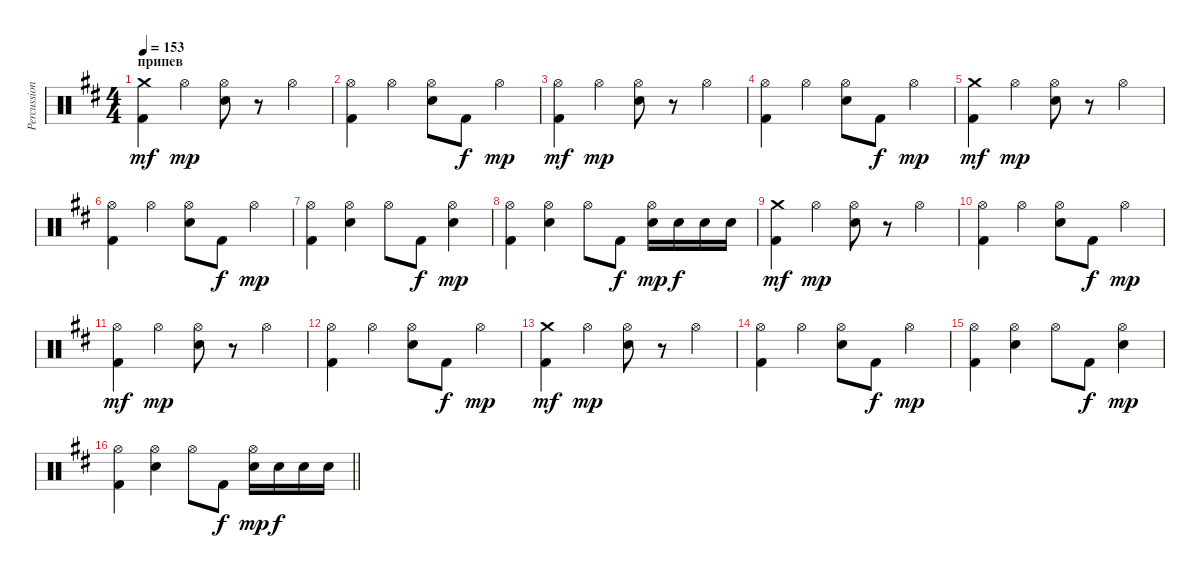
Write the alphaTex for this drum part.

\track ("Percussion" "Percussion") {instrument percussion}
\staff {score}
\articulation defaults
\ts (4 4)
\section ("" "припев")
\tempo 153
\clef neutral
\ks bminor
("Kick (hit) 2" "Crash medium (hit)").4{dy mf} "Hi-Hat (open)".4{dy mp} ("Electric Snare (hit)" "Hi-Hat (open)").8 r.8 "Hi-Hat (open)".4 |
("Kick (hit) 2" "Hi-Hat (open)").4 "Hi-Hat (open)".4 ("Electric Snare (hit)" "Hi-Hat (open)").8 "Kick (hit) 2".8{dy f} "Hi-Hat (open)".4{dy mp} |
("Kick (hit) 2" "Hi-Hat (open)").4{dy mf} "Hi-Hat (open)".4{dy mp} ("Electric Snare (hit)" "Hi-Hat (open)").8 r.8 "Hi-Hat (open)".4 |
("Kick (hit) 2" "Hi-Hat (open)").4 "Hi-Hat (open)".4 ("Electric Snare (hit)" "Hi-Hat (open)").8 "Kick (hit) 2".8{dy f} "Hi-Hat (open)".4{dy mp} |
("Kick (hit) 2" "Crash medium (hit)").4{dy mf} "Hi-Hat (open)".4{dy mp} ("Electric Snare (hit)" "Hi-Hat (open)").8 r.8 "Hi-Hat (open)".4 |
("Kick (hit) 2" "Hi-Hat (open)").4 "Hi-Hat (open)".4 ("Electric Snare (hit)" "Hi-Hat (open)").8 "Kick (hit) 2".8{dy f} "Hi-Hat (open)".4{dy mp} |
("Kick (hit) 2" "Hi-Hat (open)").4 ("Electric Snare (hit)" "Hi-Hat (open)").4 "Hi-Hat (open)".8 "Kick (hit) 2".8{dy f} ("Electric Snare (hit)" "Hi-Hat (open)").4{dy mp} |
("Kick (hit) 2" "Hi-Hat (open)").4 ("Electric Snare (hit)" "Hi-Hat (open)").4 "Hi-Hat (open)".8 "Kick (hit) 2".8{dy f} ("Electric Snare (hit)" "Hi-Hat (open)").16{dy mp} "Electric Snare (hit)".16{dy f} "Electric Snare (hit)".16 "Electric Snare (hit)".16 |
("Kick (hit) 2" "Crash medium (hit)").4{dy mf} "Hi-Hat (open)".4{dy mp} ("Electric Snare (hit)" "Hi-Hat (open)").8 r.8 "Hi-Hat (open)".4 |
("Kick (hit) 2" "Hi-Hat (open)").4 "Hi-Hat (open)".4 ("Electric Snare (hit)" "Hi-Hat (open)").8 "Kick (hit) 2".8{dy f} "Hi-Hat (open)".4{dy mp} |
("Kick (hit) 2" "Hi-Hat (open)").4{dy mf} "Hi-Hat (open)".4{dy mp} ("Electric Snare (hit)" "Hi-Hat (open)").8 r.8 "Hi-Hat (open)".4 |
("Kick (hit) 2" "Hi-Hat (open)").4 "Hi-Hat (open)".4 ("Electric Snare (hit)" "Hi-Hat (open)").8 "Kick (hit) 2".8{dy f} "Hi-Hat (open)".4{dy mp} |
("Kick (hit) 2" "Crash medium (hit)").4{dy mf} "Hi-Hat (open)".4{dy mp} ("Electric Snare (hit)" "Hi-Hat (open)").8 r.8 "Hi-Hat (open)".4 |
("Kick (hit) 2" "Hi-Hat (open)").4 "Hi-Hat (open)".4 ("Electric Snare (hit)" "Hi-Hat (open)").8 "Kick (hit) 2".8{dy f} "Hi-Hat (open)".4{dy mp} |
("Kick (hit) 2" "Hi-Hat (open)").4 ("Electric Snare (hit)" "Hi-Hat (open)").4 "Hi-Hat (open)".8 "Kick (hit) 2".8{dy f} ("Electric Snare (hit)" "Hi-Hat (open)").4{dy mp} |
\barLineRight lightlight
("Kick (hit) 2" "Hi-Hat (open)").4 ("Electric Snare (hit)" "Hi-Hat (open)").4 "Hi-Hat (open)".8 "Kick (hit) 2".8{dy f} ("Electric Snare (hit)" "Hi-Hat (open)").16{dy mp} "Electric Snare (hit)".16{dy f} "Electric Snare (hit)".16 "Electric Snare (hit)".16
